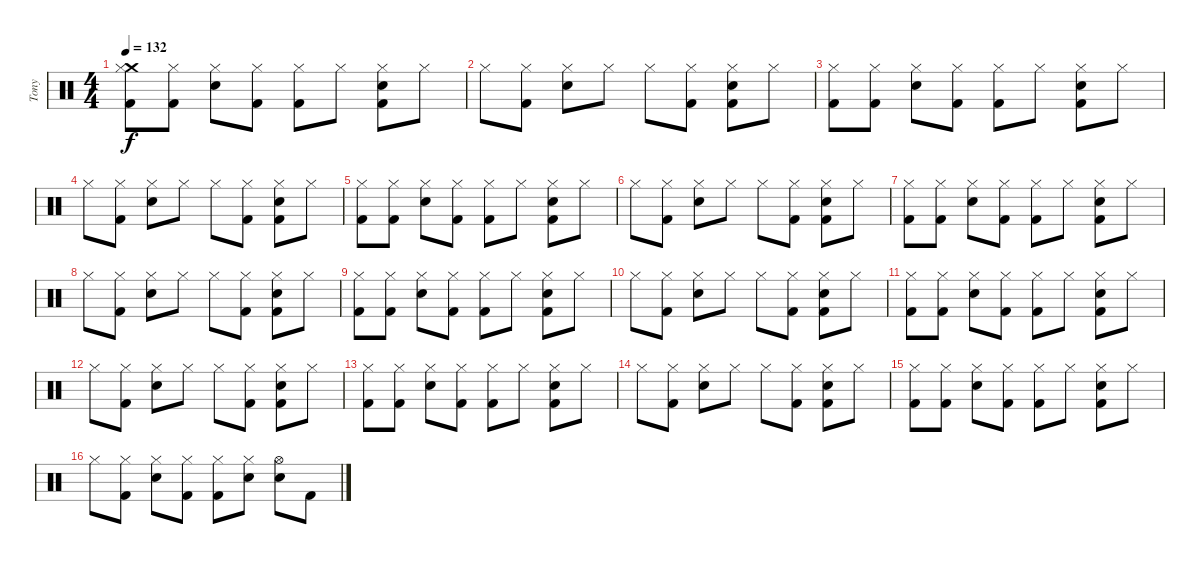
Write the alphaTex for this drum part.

\track ("Tony" "Tony") {instrument percussion}
\staff {score}
\articulation defaults
\ts (4 4)
\section ("" "")
\tempo 132
\clef neutral
\ks c
("Crash medium (hit)" "Hi-Hat (closed)" "Kick (hit) 2").8{dy f} ("Hi-Hat (closed)" "Kick (hit) 2").8 ("Hi-Hat (closed)" "Electric Snare (hit)").8 ("Hi-Hat (closed)" "Kick (hit) 2").8 ("Hi-Hat (closed)" "Kick (hit) 2").8 "Hi-Hat (closed)".8 ("Hi-Hat (closed)" "Electric Snare (hit)" "Kick (hit) 2").8 "Hi-Hat (closed)".8 |
"Hi-Hat (closed)".8 ("Hi-Hat (closed)" "Kick (hit) 2").8 ("Hi-Hat (closed)" "Electric Snare (hit)").8 "Hi-Hat (closed)".8 "Hi-Hat (closed)".8 ("Hi-Hat (closed)" "Kick (hit) 2").8 ("Hi-Hat (closed)" "Kick (hit) 2" "Electric Snare (hit)").8 "Hi-Hat (closed)".8 |
("Hi-Hat (closed)" "Kick (hit) 2").8 ("Hi-Hat (closed)" "Kick (hit) 2").8 ("Hi-Hat (closed)" "Electric Snare (hit)").8 ("Hi-Hat (closed)" "Kick (hit) 2").8 ("Hi-Hat (closed)" "Kick (hit) 2").8 "Hi-Hat (closed)".8 ("Hi-Hat (closed)" "Electric Snare (hit)" "Kick (hit) 2").8 "Hi-Hat (closed)".8 |
"Hi-Hat (closed)".8 ("Hi-Hat (closed)" "Kick (hit) 2").8 ("Hi-Hat (closed)" "Electric Snare (hit)").8 "Hi-Hat (closed)".8 "Hi-Hat (closed)".8 ("Hi-Hat (closed)" "Kick (hit) 2").8 ("Hi-Hat (closed)" "Kick (hit) 2" "Electric Snare (hit)").8 "Hi-Hat (closed)".8 |
("Hi-Hat (closed)" "Kick (hit) 2").8 ("Hi-Hat (closed)" "Kick (hit) 2").8 ("Hi-Hat (closed)" "Electric Snare (hit)").8 ("Hi-Hat (closed)" "Kick (hit) 2").8 ("Hi-Hat (closed)" "Kick (hit) 2").8 "Hi-Hat (closed)".8 ("Hi-Hat (closed)" "Electric Snare (hit)" "Kick (hit) 2").8 "Hi-Hat (closed)".8 |
"Hi-Hat (closed)".8 ("Hi-Hat (closed)" "Kick (hit) 2").8 ("Hi-Hat (closed)" "Electric Snare (hit)").8 "Hi-Hat (closed)".8 "Hi-Hat (closed)".8 ("Hi-Hat (closed)" "Kick (hit) 2").8 ("Hi-Hat (closed)" "Kick (hit) 2" "Electric Snare (hit)").8 "Hi-Hat (closed)".8 |
("Hi-Hat (closed)" "Kick (hit) 2").8 ("Hi-Hat (closed)" "Kick (hit) 2").8 ("Hi-Hat (closed)" "Electric Snare (hit)").8 ("Hi-Hat (closed)" "Kick (hit) 2").8 ("Hi-Hat (closed)" "Kick (hit) 2").8 "Hi-Hat (closed)".8 ("Hi-Hat (closed)" "Electric Snare (hit)" "Kick (hit) 2").8 "Hi-Hat (closed)".8 |
"Hi-Hat (closed)".8 ("Hi-Hat (closed)" "Kick (hit) 2").8 ("Hi-Hat (closed)" "Electric Snare (hit)").8 "Hi-Hat (closed)".8 "Hi-Hat (closed)".8 ("Hi-Hat (closed)" "Kick (hit) 2").8 ("Hi-Hat (closed)" "Kick (hit) 2" "Electric Snare (hit)").8 "Hi-Hat (closed)".8 |
("Hi-Hat (closed)" "Kick (hit) 2").8 ("Hi-Hat (closed)" "Kick (hit) 2").8 ("Hi-Hat (closed)" "Electric Snare (hit)").8 ("Hi-Hat (closed)" "Kick (hit) 2").8 ("Hi-Hat (closed)" "Kick (hit) 2").8 "Hi-Hat (closed)".8 ("Hi-Hat (closed)" "Electric Snare (hit)" "Kick (hit) 2").8 "Hi-Hat (closed)".8 |
"Hi-Hat (closed)".8 ("Hi-Hat (closed)" "Kick (hit) 2").8 ("Hi-Hat (closed)" "Electric Snare (hit)").8 "Hi-Hat (closed)".8 "Hi-Hat (closed)".8 ("Hi-Hat (closed)" "Kick (hit) 2").8 ("Hi-Hat (closed)" "Kick (hit) 2" "Electric Snare (hit)").8 "Hi-Hat (closed)".8 |
("Hi-Hat (closed)" "Kick (hit) 2").8 ("Hi-Hat (closed)" "Kick (hit) 2").8 ("Hi-Hat (closed)" "Electric Snare (hit)").8 ("Hi-Hat (closed)" "Kick (hit) 2").8 ("Hi-Hat (closed)" "Kick (hit) 2").8 "Hi-Hat (closed)".8 ("Hi-Hat (closed)" "Electric Snare (hit)" "Kick (hit) 2").8 "Hi-Hat (closed)".8 |
"Hi-Hat (closed)".8 ("Hi-Hat (closed)" "Kick (hit) 2").8 ("Hi-Hat (closed)" "Electric Snare (hit)").8 "Hi-Hat (closed)".8 "Hi-Hat (closed)".8 ("Hi-Hat (closed)" "Kick (hit) 2").8 ("Hi-Hat (closed)" "Kick (hit) 2" "Electric Snare (hit)").8 "Hi-Hat (closed)".8 |
("Hi-Hat (closed)" "Kick (hit) 2").8 ("Hi-Hat (closed)" "Kick (hit) 2").8 ("Hi-Hat (closed)" "Electric Snare (hit)").8 ("Hi-Hat (closed)" "Kick (hit) 2").8 ("Hi-Hat (closed)" "Kick (hit) 2").8 "Hi-Hat (closed)".8 ("Hi-Hat (closed)" "Electric Snare (hit)" "Kick (hit) 2").8 "Hi-Hat (closed)".8 |
"Hi-Hat (closed)".8 ("Hi-Hat (closed)" "Kick (hit) 2").8 ("Hi-Hat (closed)" "Electric Snare (hit)").8 "Hi-Hat (closed)".8 "Hi-Hat (closed)".8 ("Hi-Hat (closed)" "Kick (hit) 2").8 ("Hi-Hat (closed)" "Kick (hit) 2" "Electric Snare (hit)").8 "Hi-Hat (closed)".8 |
("Hi-Hat (closed)" "Kick (hit) 2").8 ("Hi-Hat (closed)" "Kick (hit) 2").8 ("Hi-Hat (closed)" "Electric Snare (hit)").8 ("Hi-Hat (closed)" "Kick (hit) 2").8 ("Hi-Hat (closed)" "Kick (hit) 2").8 "Hi-Hat (closed)".8 ("Hi-Hat (closed)" "Electric Snare (hit)" "Kick (hit) 2").8 "Hi-Hat (closed)".8 |
"Hi-Hat (closed)".8 ("Hi-Hat (closed)" "Kick (hit) 2").8 ("Hi-Hat (closed)" "Electric Snare (hit)").8 ("Hi-Hat (closed)" "Kick (hit) 2").8 ("Hi-Hat (closed)" "Kick (hit) 2").8 ("Hi-Hat (closed)" "Electric Snare (hit)").8 ("Hi-Hat (open)" "Electric Snare (hit)").8 "Kick (hit) 2".8
